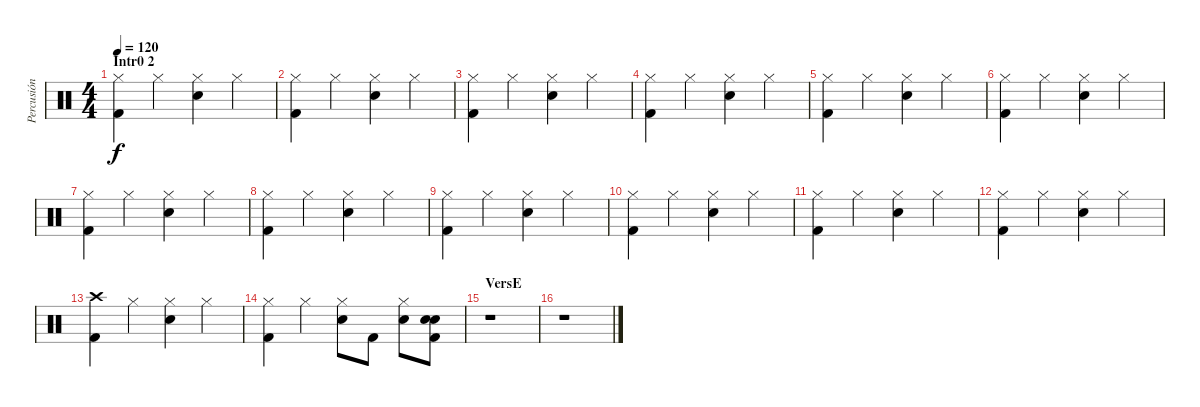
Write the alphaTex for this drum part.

\track ("Percusión" "Percusión") {instrument percussion}
\staff {score}
\articulation defaults
\ts (4 4)
\section ("" "Intr0 2")
\tempo 120
\clef neutral
\ks c
("Hi-Hat (closed)" "Kick (hit) 2").4{dy f} "Hi-Hat (closed)".4 ("Hi-Hat (closed)" "Electric Snare (hit)").4 "Hi-Hat (closed)".4 |
("Hi-Hat (closed)" "Kick (hit) 2").4 "Hi-Hat (closed)".4 ("Hi-Hat (closed)" "Electric Snare (hit)").4 "Hi-Hat (closed)".4 |
("Hi-Hat (closed)" "Kick (hit) 2").4 "Hi-Hat (closed)".4 ("Hi-Hat (closed)" "Electric Snare (hit)").4 "Hi-Hat (closed)".4 |
("Hi-Hat (closed)" "Kick (hit) 2").4 "Hi-Hat (closed)".4 ("Hi-Hat (closed)" "Electric Snare (hit)").4 "Hi-Hat (closed)".4 |
("Hi-Hat (closed)" "Kick (hit) 2").4 "Hi-Hat (closed)".4 ("Hi-Hat (closed)" "Electric Snare (hit)").4 "Hi-Hat (closed)".4 |
("Hi-Hat (closed)" "Kick (hit) 2").4 "Hi-Hat (closed)".4 ("Hi-Hat (closed)" "Electric Snare (hit)").4 "Hi-Hat (closed)".4 |
("Hi-Hat (closed)" "Kick (hit) 2").4 "Hi-Hat (closed)".4 ("Hi-Hat (closed)" "Electric Snare (hit)").4 "Hi-Hat (closed)".4 |
("Hi-Hat (closed)" "Kick (hit) 2").4 "Hi-Hat (closed)".4 ("Hi-Hat (closed)" "Electric Snare (hit)").4 "Hi-Hat (closed)".4 |
("Hi-Hat (closed)" "Kick (hit) 2").4 "Hi-Hat (closed)".4 ("Hi-Hat (closed)" "Electric Snare (hit)").4 "Hi-Hat (closed)".4 |
("Hi-Hat (closed)" "Kick (hit) 2").4 "Hi-Hat (closed)".4 ("Hi-Hat (closed)" "Electric Snare (hit)").4 "Hi-Hat (closed)".4 |
("Hi-Hat (closed)" "Kick (hit) 2").4 "Hi-Hat (closed)".4 ("Hi-Hat (closed)" "Electric Snare (hit)").4 "Hi-Hat (closed)".4 |
("Hi-Hat (closed)" "Kick (hit) 2").4 "Hi-Hat (closed)".4 ("Hi-Hat (closed)" "Electric Snare (hit)").4 "Hi-Hat (closed)".4 |
("Crash high (hit)" "Kick (hit) 2").4 "Hi-Hat (closed)".4 ("Hi-Hat (closed)" "Electric Snare (hit)").4 "Hi-Hat (closed)".4 |
("Hi-Hat (closed)" "Kick (hit) 2").4 "Hi-Hat (closed)".4 ("Hi-Hat (closed)" "Electric Snare (hit)").8 "Kick (hit) 2".8 ("Hi-Hat (closed)" "Electric Snare (hit)").8 ("Electric Snare (hit)" "Electric Snare (hit)" "Kick (hit) 2").8 |
\section ("" "VersE")
r.1 |
r.1
